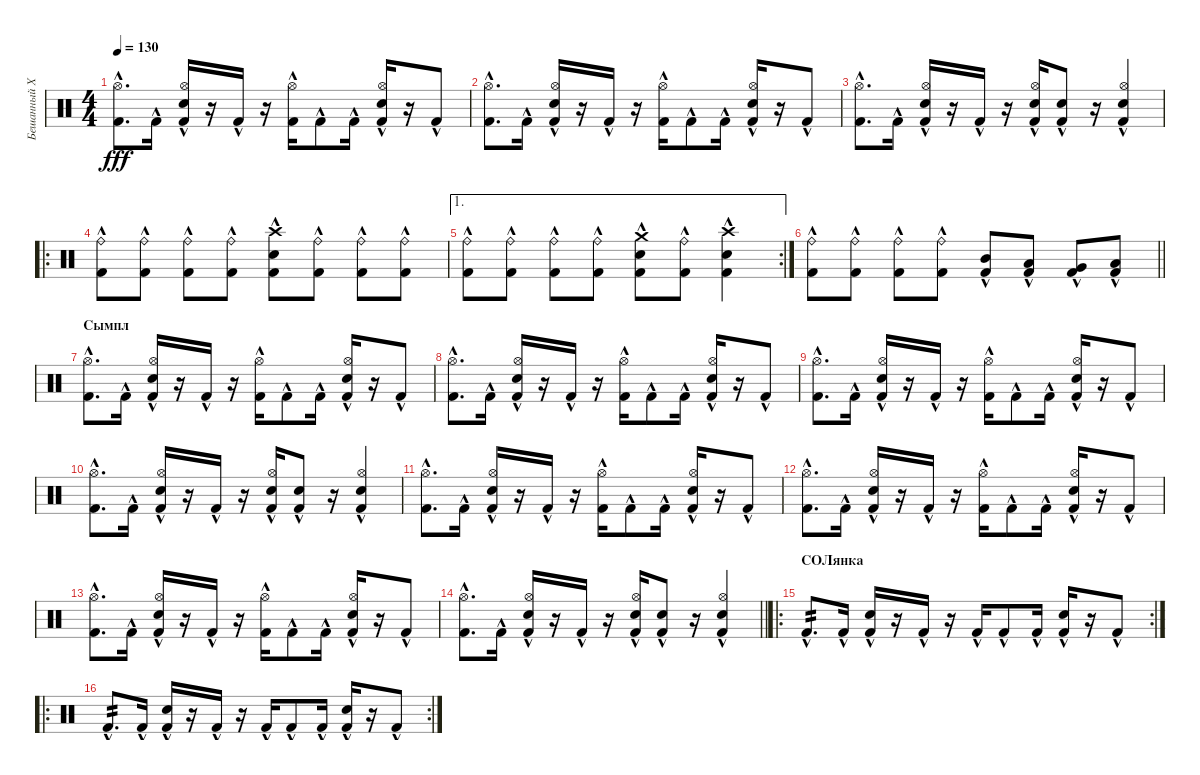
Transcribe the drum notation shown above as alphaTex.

\track ("Бешанный Харек" "Бешанный Х") {instrument percussion}
\staff {score}
\articulation defaults
\ts (4 4)
\tempo 130
\clef neutral
\ks c
("Kick (hit) 2"{hac} "Hi-Hat (open)").8{d dy fff} "Kick (hit) 2"{hac}.16 ("Kick (hit) 2"{hac} "Snare (hit) 2" "Hi-Hat (open)").16 r.16 "Kick (hit) 2"{hac}.16 r.16 ("Kick (hit) 2"{hac} "Hi-Hat (open)").16 "Kick (hit) 2"{hac}.8 "Kick (hit) 2"{hac}.16 ("Kick (hit) 2"{hac} "Snare (hit) 2" "Hi-Hat (open)").16 r.16 "Kick (hit) 2"{hac}.8 |
("Kick (hit) 2"{hac} "Hi-Hat (open)").8{d} "Kick (hit) 2"{hac}.16 ("Kick (hit) 2"{hac} "Snare (hit) 2" "Hi-Hat (open)").16 r.16 "Kick (hit) 2"{hac}.16 r.16 ("Kick (hit) 2"{hac} "Hi-Hat (open)").16 "Kick (hit) 2"{hac}.8 "Kick (hit) 2"{hac}.16 ("Kick (hit) 2"{hac} "Snare (hit) 2" "Hi-Hat (open)").16 r.16 "Kick (hit) 2"{hac}.8 |
("Kick (hit) 2"{hac} "Hi-Hat (open)").8{d} "Kick (hit) 2"{hac}.16 ("Kick (hit) 2"{hac} "Snare (hit) 2" "Hi-Hat (open)").16 r.16 "Kick (hit) 2"{hac}.16 r.16 ("Kick (hit) 2"{hac} "Snare (hit) 2" "Hi-Hat (open)").16 ("Kick (hit) 2"{hac} "Snare (hit) 2").8 r.16 ("Kick (hit) 2"{hac} "Snare (hit) 2" "Hi-Hat (open)").4 |
\ro
("Kick (hit) 2"{hac} "Ride (bell)").8 ("Kick (hit) 2"{hac} "Ride (bell)").8 ("Kick (hit) 2"{hac} "Ride (bell)").8 ("Kick (hit) 2"{hac} "Ride (bell)").8 ("Kick (hit) 2"{hac} "Crash high (hit)" "Snare (hit) 2").8 ("Kick (hit) 2"{hac} "Ride (bell)").8 ("Kick (hit) 2"{hac} "Ride (bell)").8 ("Kick (hit) 2"{hac} "Ride (bell)").8 |
\ae 1
\rc 2
("Kick (hit) 2"{hac} "Ride (bell)").8 ("Kick (hit) 2"{hac} "Ride (bell)").8 ("Kick (hit) 2"{hac} "Ride (bell)").8 ("Kick (hit) 2"{hac} "Ride (bell)").8 ("Kick (hit) 2"{hac} "Crash medium (hit)" "Snare (hit) 2").8 ("Kick (hit) 2"{hac} "Ride (bell)").8 ("Kick (hit) 2"{hac} "Crash high (hit)" "Snare (hit) 2").4 |
\barLineRight lightlight
("Kick (hit) 2"{hac} "Ride (bell)").8 ("Kick (hit) 2"{hac} "Ride (bell)").8 ("Kick (hit) 2"{hac} "Ride (bell)").8 ("Kick (hit) 2"{hac} "Ride (bell)").8 ("Kick (hit) 2"{hac} "Mid Tom (hit)").8 ("Kick (hit) 2"{hac} "Low Tom (hit)").8 ("Kick (hit) 2"{hac} "Very Low Tom (hit)").8 ("Kick (hit) 2"{hac} "Low Floor Tom (hit)").8 |
\section ("" "Сымпл")
("Kick (hit) 2"{hac} "Hi-Hat (open)").8{d} "Kick (hit) 2"{hac}.16 ("Kick (hit) 2"{hac} "Snare (hit) 2" "Hi-Hat (open)").16 r.16 "Kick (hit) 2"{hac}.16 r.16 ("Kick (hit) 2"{hac} "Hi-Hat (open)").16 "Kick (hit) 2"{hac}.8 "Kick (hit) 2"{hac}.16 ("Kick (hit) 2"{hac} "Snare (hit) 2" "Hi-Hat (open)").16 r.16 "Kick (hit) 2"{hac}.8 |
("Kick (hit) 2"{hac} "Hi-Hat (open)").8{d} "Kick (hit) 2"{hac}.16 ("Kick (hit) 2"{hac} "Snare (hit) 2" "Hi-Hat (open)").16 r.16 "Kick (hit) 2"{hac}.16 r.16 ("Kick (hit) 2"{hac} "Hi-Hat (open)").16 "Kick (hit) 2"{hac}.8 "Kick (hit) 2"{hac}.16 ("Kick (hit) 2"{hac} "Snare (hit) 2" "Hi-Hat (open)").16 r.16 "Kick (hit) 2"{hac}.8 |
("Kick (hit) 2"{hac} "Hi-Hat (open)").8{d} "Kick (hit) 2"{hac}.16 ("Kick (hit) 2"{hac} "Snare (hit) 2" "Hi-Hat (open)").16 r.16 "Kick (hit) 2"{hac}.16 r.16 ("Kick (hit) 2"{hac} "Hi-Hat (open)").16 "Kick (hit) 2"{hac}.8 "Kick (hit) 2"{hac}.16 ("Kick (hit) 2"{hac} "Snare (hit) 2" "Hi-Hat (open)").16 r.16 "Kick (hit) 2"{hac}.8 |
("Kick (hit) 2"{hac} "Hi-Hat (open)").8{d} "Kick (hit) 2"{hac}.16 ("Kick (hit) 2"{hac} "Snare (hit) 2" "Hi-Hat (open)").16 r.16 "Kick (hit) 2"{hac}.16 r.16 ("Kick (hit) 2"{hac} "Snare (hit) 2" "Hi-Hat (open)").16 ("Kick (hit) 2"{hac} "Snare (hit) 2").8 r.16 ("Kick (hit) 2"{hac} "Snare (hit) 2" "Hi-Hat (open)").4 |
("Kick (hit) 2"{hac} "Hi-Hat (open)").8{d} "Kick (hit) 2"{hac}.16 ("Kick (hit) 2"{hac} "Snare (hit) 2" "Hi-Hat (open)").16 r.16 "Kick (hit) 2"{hac}.16 r.16 ("Kick (hit) 2"{hac} "Hi-Hat (open)").16 "Kick (hit) 2"{hac}.8 "Kick (hit) 2"{hac}.16 ("Kick (hit) 2"{hac} "Snare (hit) 2" "Hi-Hat (open)").16 r.16 "Kick (hit) 2"{hac}.8 |
("Kick (hit) 2"{hac} "Hi-Hat (open)").8{d} "Kick (hit) 2"{hac}.16 ("Kick (hit) 2"{hac} "Snare (hit) 2" "Hi-Hat (open)").16 r.16 "Kick (hit) 2"{hac}.16 r.16 ("Kick (hit) 2"{hac} "Hi-Hat (open)").16 "Kick (hit) 2"{hac}.8 "Kick (hit) 2"{hac}.16 ("Kick (hit) 2"{hac} "Snare (hit) 2" "Hi-Hat (open)").16 r.16 "Kick (hit) 2"{hac}.8 |
("Kick (hit) 2"{hac} "Hi-Hat (open)").8{d} "Kick (hit) 2"{hac}.16 ("Kick (hit) 2"{hac} "Snare (hit) 2" "Hi-Hat (open)").16 r.16 "Kick (hit) 2"{hac}.16 r.16 ("Kick (hit) 2"{hac} "Hi-Hat (open)").16 "Kick (hit) 2"{hac}.8 "Kick (hit) 2"{hac}.16 ("Kick (hit) 2"{hac} "Snare (hit) 2" "Hi-Hat (open)").16 r.16 "Kick (hit) 2"{hac}.8 |
\barLineRight lightlight
("Kick (hit) 2"{hac} "Hi-Hat (open)").8{d} "Kick (hit) 2"{hac}.16 ("Kick (hit) 2"{hac} "Snare (hit) 2" "Hi-Hat (open)").16 r.16 "Kick (hit) 2"{hac}.16 r.16 ("Kick (hit) 2"{hac} "Snare (hit) 2" "Hi-Hat (open)").16 ("Kick (hit) 2"{hac} "Snare (hit) 2").8 r.16 ("Kick (hit) 2"{hac} "Snare (hit) 2" "Hi-Hat (open)").4 |
\ro
\rc 2
\section ("" "СОЛянка")
"Kick (hit) 2"{hac}.8{d tp 2} "Kick (hit) 2"{hac}.16 ("Kick (hit) 2"{hac} "Snare (hit) 2").16 r.16 "Kick (hit) 2"{hac}.16 r.16 "Kick (hit) 2"{hac}.16 "Kick (hit) 2"{hac}.8 "Kick (hit) 2"{hac}.16 ("Kick (hit) 2"{hac} "Snare (hit) 2").16 r.16 "Kick (hit) 2"{hac}.8 |
\ro
\rc 2 "Kick (hit) 2"{hac}.8{d tp 2} "Kick (hit) 2"{hac}.16
("Kick (hit) 2"{hac} "Snare (hit) 2").16 r.16 "Kick (hit) 2"{hac}.16 r.16 "Kick (hit) 2"{hac}.16 "Kick (hit) 2"{hac}.8 "Kick (hit) 2"{hac}.16 ("Kick (hit) 2"{hac} "Snare (hit) 2").16 r.16 "Kick (hit) 2"{hac}.8
